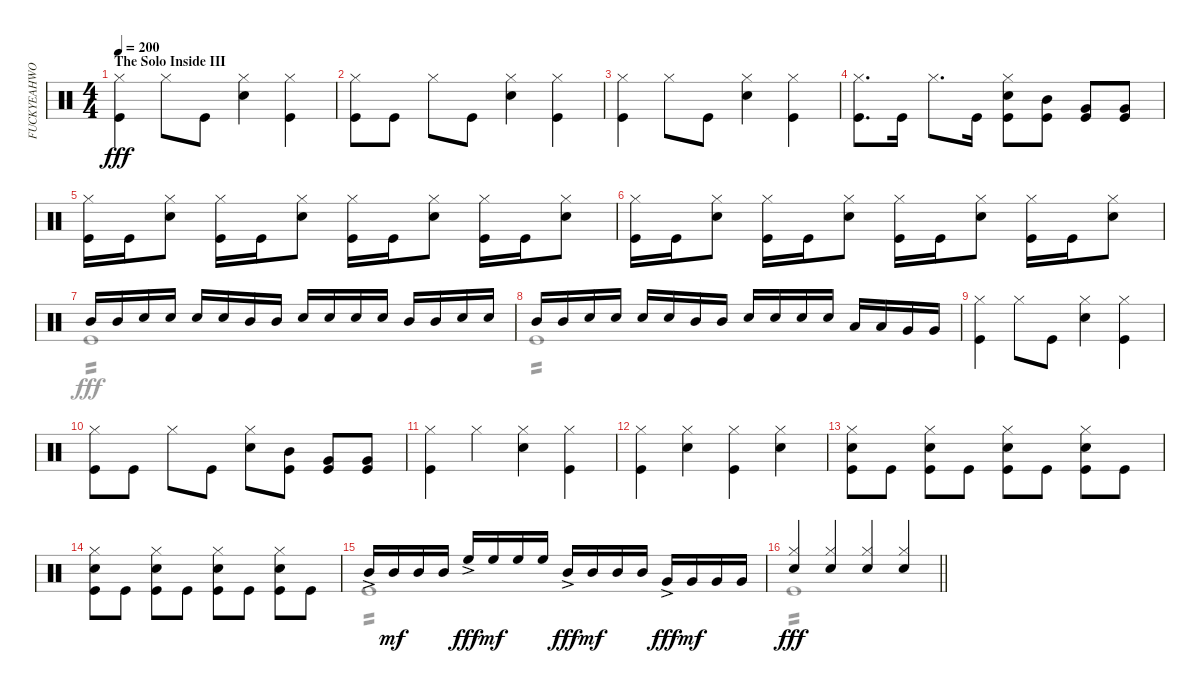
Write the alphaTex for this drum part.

\track ("FUCKYEAHWOOTDAVEMACKINTOSH!(Percussion)" "FUCKYEAHWO") {instrument percussion}
\staff {score}
\articulation defaults
\voice
\ts (4 4)
\section ("" "The Solo Inside III")
\tempo 200
\clef neutral
\ks c
("Hi-Hat (closed)" "Kick (hit)").4{dy fff} "Hi-Hat (closed)".8 "Kick (hit)".8 ("Hi-Hat (closed)" "Snare (hit) 2").4 ("Hi-Hat (closed)" "Kick (hit)").4 |
("Hi-Hat (closed)" "Kick (hit)").8 "Kick (hit)".8 "Hi-Hat (closed)".8 "Kick (hit)".8 ("Hi-Hat (closed)" "Snare (hit) 2").4 ("Kick (hit)" "Hi-Hat (closed)").4 |
("Hi-Hat (closed)" "Kick (hit)").4 "Hi-Hat (closed)".8 "Kick (hit)".8 ("Hi-Hat (closed)" "Snare (hit) 2").4 ("Hi-Hat (closed)" "Kick (hit)").4 |
("Hi-Hat (closed)" "Kick (hit)").8{d} "Kick (hit)".16 "Hi-Hat (closed)".8{d} "Kick (hit)".16 ("Hi-Hat (closed)" "Snare (hit) 2" "Kick (hit)").8 ("Mid Tom (hit)" "Kick (hit)").8 ("Very Low Tom (hit)" "Kick (hit)").8 ("Very Low Tom (hit)" "Kick (hit)").8 |
("Kick (hit)" "Hi-Hat (closed)").16 "Kick (hit)".16 ("Snare (hit) 2" "Hi-Hat (closed)").8 ("Kick (hit)" "Hi-Hat (closed)").16 "Kick (hit)".16 ("Snare (hit) 2" "Hi-Hat (closed)").8 ("Kick (hit)" "Hi-Hat (closed)").16 "Kick (hit)".16 ("Snare (hit) 2" "Hi-Hat (closed)").8 ("Kick (hit)" "Hi-Hat (closed)").16 "Kick (hit)".16 ("Snare (hit) 2" "Hi-Hat (closed)").8 |
("Kick (hit)" "Hi-Hat (closed)").16 "Kick (hit)".16 ("Snare (hit) 2" "Hi-Hat (closed)").8 ("Kick (hit)" "Hi-Hat (closed)").16 "Kick (hit)".16 ("Snare (hit) 2" "Hi-Hat (closed)").8 ("Kick (hit)" "Hi-Hat (closed)").16 "Kick (hit)".16 ("Snare (hit) 2" "Hi-Hat (closed)").8 ("Kick (hit)" "Hi-Hat (closed)").16 "Kick (hit)".16 ("Snare (hit) 2" "Hi-Hat (closed)").8 |
"Mid Tom (hit)".16 "Mid Tom (hit)".16 "Snare (hit) 2".16 "Snare (hit) 2".16 "Snare (hit) 2".16 "Snare (hit) 2".16 "Mid Tom (hit)".16 "Mid Tom (hit)".16 "Snare (hit) 2".16 "Snare (hit) 2".16 "Snare (hit) 2".16 "Snare (hit) 2".16 "Mid Tom (hit)".16 "Mid Tom (hit)".16 "Snare (hit) 2".16 "Snare (hit) 2".16 |
"Mid Tom (hit)".16 "Mid Tom (hit)".16 "Snare (hit) 2".16 "Snare (hit) 2".16 "Snare (hit) 2".16 "Snare (hit) 2".16 "Mid Tom (hit)".16 "Mid Tom (hit)".16 "Snare (hit) 2".16 "Snare (hit) 2".16 "Snare (hit) 2".16 "Snare (hit) 2".16 "Low Tom (hit)".16 "Low Tom (hit)".16 "Very Low Tom (hit)".16 "Very Low Tom (hit)".16 |
("Hi-Hat (closed)" "Kick (hit)").4 "Hi-Hat (closed)".8 "Kick (hit)".8 ("Hi-Hat (closed)" "Snare (hit) 2").4 ("Hi-Hat (closed)" "Kick (hit)").4 |
("Hi-Hat (closed)" "Kick (hit)").8 "Kick (hit)".8 "Hi-Hat (closed)".8 "Kick (hit)".8 ("Hi-Hat (closed)" "Snare (hit) 2").8 ("Mid Tom (hit)" "Kick (hit)").8 ("Very Low Tom (hit)" "Kick (hit)").8 ("Very Low Tom (hit)" "Kick (hit)").8 |
("Hi-Hat (closed)" "Kick (hit)").4 "Hi-Hat (closed)".4 ("Hi-Hat (closed)" "Snare (hit) 2").4 ("Kick (hit)" "Hi-Hat (closed)").4 |
("Kick (hit)" "Hi-Hat (closed)").4 ("Snare (hit) 2" "Hi-Hat (closed)").4 ("Kick (hit)" "Hi-Hat (closed)").4 ("Snare (hit) 2" "Hi-Hat (closed)").4 |
("Hi-Hat (closed)" "Snare (hit) 2" "Kick (hit)").8 "Kick (hit)".8 ("Hi-Hat (closed)" "Snare (hit) 2" "Kick (hit)").8 "Kick (hit)".8 ("Hi-Hat (closed)" "Snare (hit) 2" "Kick (hit)").8 "Kick (hit)".8 ("Hi-Hat (closed)" "Snare (hit) 2" "Kick (hit)").8 "Kick (hit)".8 |
("Hi-Hat (closed)" "Snare (hit) 2" "Kick (hit)").8 "Kick (hit)".8 ("Hi-Hat (closed)" "Snare (hit) 2" "Kick (hit)").8 "Kick (hit)".8 ("Hi-Hat (closed)" "Snare (hit) 2" "Kick (hit)").8 "Kick (hit)".8 ("Hi-Hat (closed)" "Snare (hit) 2" "Kick (hit)").8 "Kick (hit)".8 |
"Mid Tom (hit)"{ac}.16 "Mid Tom (hit)".16{dy mf} "Mid Tom (hit)".16 "Mid Tom (hit)".16 "High Floor Tom (hit)"{ac}.16{dy fff} "High Floor Tom (hit)".16{dy mf} "High Floor Tom (hit)".16 "High Floor Tom (hit)".16 "Mid Tom (hit)"{ac}.16{dy fff} "Mid Tom (hit)".16{dy mf} "Mid Tom (hit)".16 "Mid Tom (hit)".16 "Very Low Tom (hit)"{ac}.16{dy fff} "Very Low Tom (hit)".16{dy mf} "Very Low Tom (hit)".16 "Very Low Tom (hit)".16 |
\barLineRight lightlight
("Hi-Hat (closed)" "Snare (hit) 2").4{dy fff} ("Snare (hit) 2" "Hi-Hat (closed)").4 ("Snare (hit) 2" "Hi-Hat (closed)").4 ("Hi-Hat (closed)" "Snare (hit) 2").4
\voice
\clef neutral
\ottava regular
\simile none
\ks c
|
|
|
|
|
|
"Kick (hit)".1{tp 2} |
"Kick (hit)".1{tp 2} |
|
|
|
|
|
|
"Kick (hit)".1{tp 2} |
\barLineRight lightlight "Kick (hit)".1{tp 2}
